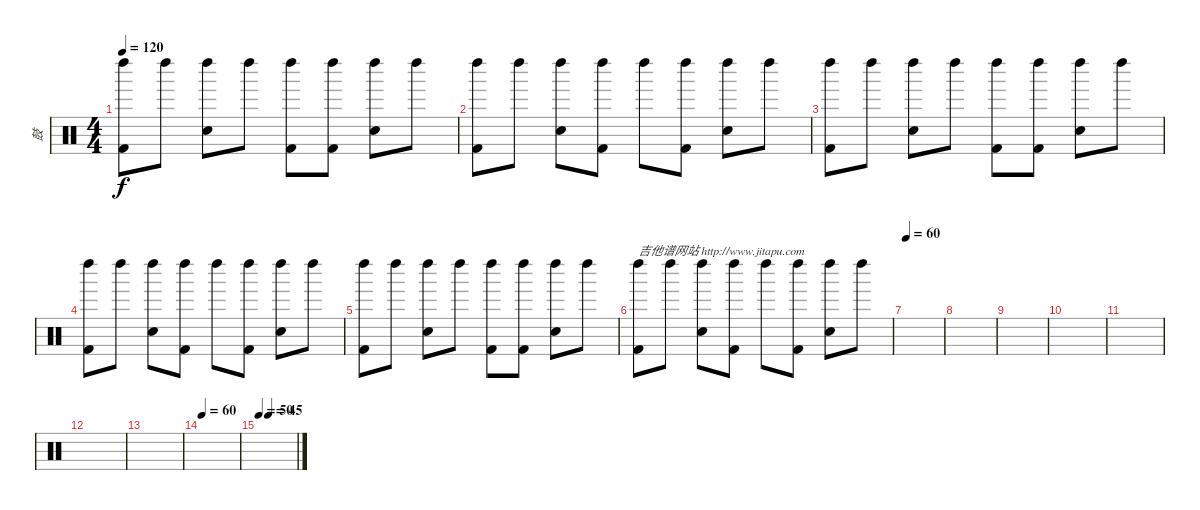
\track ("鼓" "鼓") {instrument percussion}
\staff {score}
\articulation defaults
\ts (4 4)
\tempo 120
\clef neutral
\ks c
("Left Maraca (hit)" "Kick (hit) 2").8{dy f} "Left Maraca (hit)".8 ("Left Maraca (hit)" "Snare (hit) 2").8 "Left Maraca (hit)".8 ("Left Maraca (hit)" "Kick (hit) 2").8 ("Left Maraca (hit)" "Kick (hit) 2").8 ("Left Maraca (hit)" "Snare (hit) 2").8 "Left Maraca (hit)".8 |
("Left Maraca (hit)" "Kick (hit) 2").8 "Left Maraca (hit)".8 ("Left Maraca (hit)" "Snare (hit) 2").8 ("Left Maraca (hit)" "Kick (hit) 2").8 "Left Maraca (hit)".8 ("Left Maraca (hit)" "Kick (hit) 2").8 ("Left Maraca (hit)" "Snare (hit) 2").8 "Left Maraca (hit)".8 |
("Left Maraca (hit)" "Kick (hit) 2").8 "Left Maraca (hit)".8 ("Left Maraca (hit)" "Snare (hit) 2").8 "Left Maraca (hit)".8 ("Left Maraca (hit)" "Kick (hit) 2").8 ("Left Maraca (hit)" "Kick (hit) 2").8 ("Left Maraca (hit)" "Snare (hit) 2").8 "Left Maraca (hit)".8 |
("Left Maraca (hit)" "Kick (hit) 2").8 "Left Maraca (hit)".8 ("Left Maraca (hit)" "Snare (hit) 2").8 ("Left Maraca (hit)" "Kick (hit) 2").8 "Left Maraca (hit)".8 ("Left Maraca (hit)" "Kick (hit) 2").8 ("Left Maraca (hit)" "Snare (hit) 2").8 "Left Maraca (hit)".8 |
("Left Maraca (hit)" "Kick (hit) 2").8 "Left Maraca (hit)".8 ("Left Maraca (hit)" "Snare (hit) 2").8 "Left Maraca (hit)".8 ("Left Maraca (hit)" "Kick (hit) 2").8 ("Left Maraca (hit)" "Kick (hit) 2").8 ("Left Maraca (hit)" "Snare (hit) 2").8 "Left Maraca (hit)".8 |
("Left Maraca (hit)" "Kick (hit) 2").8{txt "吉他谱网站 http://www.jitapu.com"} "Left Maraca (hit)".8 ("Left Maraca (hit)" "Snare (hit) 2").8 ("Left Maraca (hit)" "Kick (hit) 2").8 "Left Maraca (hit)".8 ("Left Maraca (hit)" "Kick (hit) 2").8 ("Left Maraca (hit)" "Snare (hit) 2").8 "Left Maraca (hit)".8 |
\tempo 60
|
|
|
|
|
|
|
\tempo 60
|
\tempo 50
\tempo (45 0.25)
